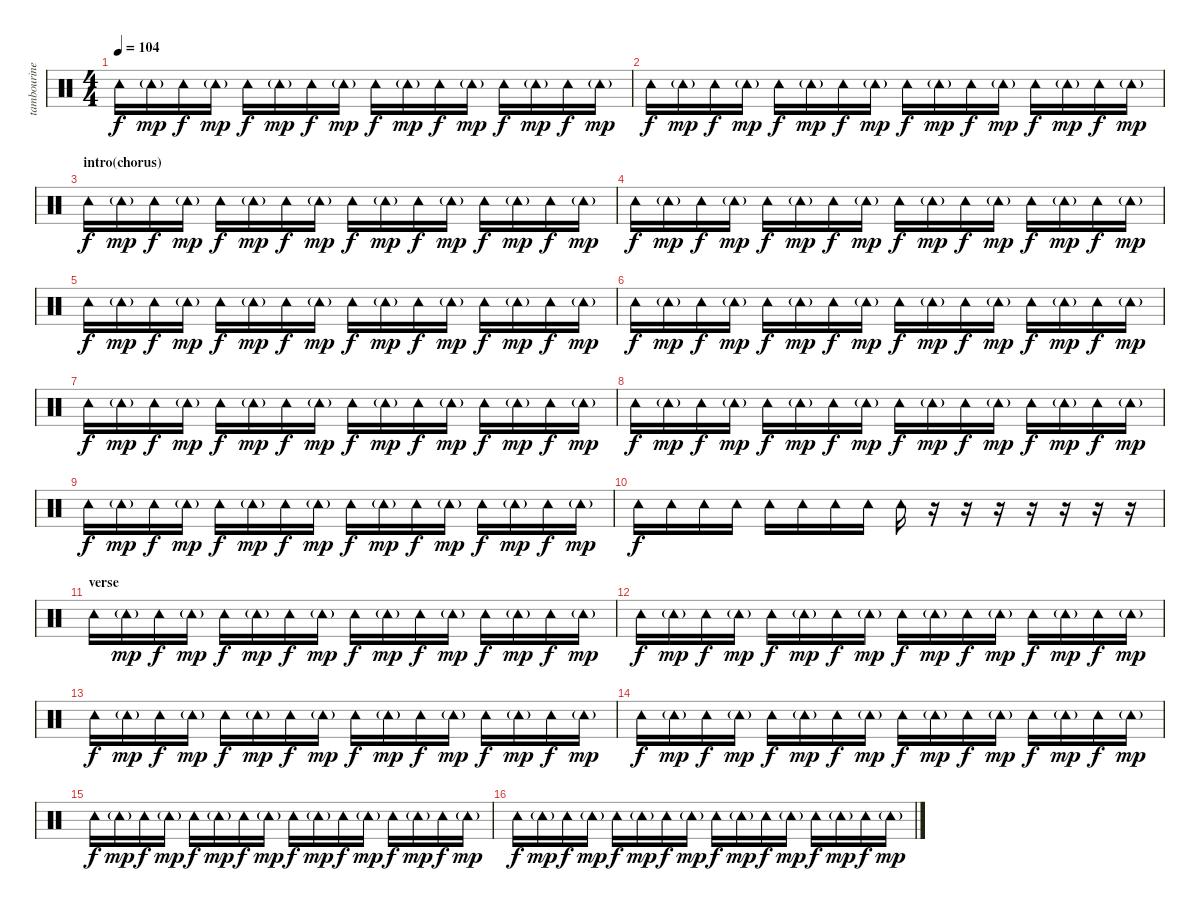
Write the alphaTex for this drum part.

\track ("tambourine" "tambourine") {instrument percussion}
\staff {score}
\articulation defaults
\ts (4 4)
\tempo 104
\clef neutral
\ks c "Tambourine (hit)".16{dy f} "Tambourine (hit)"{g}.16{dy mp} "Tambourine (hit)".16{dy f} "Tambourine (hit)"{g}.16{dy mp} "Tambourine (hit)".16{dy f} "Tambourine (hit)"{g}.16{dy mp} "Tambourine (hit)".16{dy f} "Tambourine (hit)"{g}.16{dy mp} "Tambourine (hit)".16{dy f} "Tambourine (hit)"{g}.16{dy mp} "Tambourine (hit)".16{dy f} "Tambourine (hit)"{g}.16{dy mp} "Tambourine (hit)".16{dy f} "Tambourine (hit)"{g}.16{dy mp} "Tambourine (hit)".16{dy f} "Tambourine (hit)"{g}.16{dy mp}
|
"Tambourine (hit)".16{dy f} "Tambourine (hit)"{g}.16{dy mp} "Tambourine (hit)".16{dy f} "Tambourine (hit)"{g}.16{dy mp} "Tambourine (hit)".16{dy f} "Tambourine (hit)"{g}.16{dy mp} "Tambourine (hit)".16{dy f} "Tambourine (hit)"{g}.16{dy mp} "Tambourine (hit)".16{dy f} "Tambourine (hit)"{g}.16{dy mp} "Tambourine (hit)".16{dy f} "Tambourine (hit)"{g}.16{dy mp} "Tambourine (hit)".16{dy f} "Tambourine (hit)"{g}.16{dy mp} "Tambourine (hit)".16{dy f} "Tambourine (hit)"{g}.16{dy mp} |
\section ("" "intro(chorus)")
"Tambourine (hit)".16{dy f} "Tambourine (hit)"{g}.16{dy mp} "Tambourine (hit)".16{dy f} "Tambourine (hit)"{g}.16{dy mp} "Tambourine (hit)".16{dy f} "Tambourine (hit)"{g}.16{dy mp} "Tambourine (hit)".16{dy f} "Tambourine (hit)"{g}.16{dy mp} "Tambourine (hit)".16{dy f} "Tambourine (hit)"{g}.16{dy mp} "Tambourine (hit)".16{dy f} "Tambourine (hit)"{g}.16{dy mp} "Tambourine (hit)".16{dy f} "Tambourine (hit)"{g}.16{dy mp} "Tambourine (hit)".16{dy f} "Tambourine (hit)"{g}.16{dy mp} |
"Tambourine (hit)".16{dy f} "Tambourine (hit)"{g}.16{dy mp} "Tambourine (hit)".16{dy f} "Tambourine (hit)"{g}.16{dy mp} "Tambourine (hit)".16{dy f} "Tambourine (hit)"{g}.16{dy mp} "Tambourine (hit)".16{dy f} "Tambourine (hit)"{g}.16{dy mp} "Tambourine (hit)".16{dy f} "Tambourine (hit)"{g}.16{dy mp} "Tambourine (hit)".16{dy f} "Tambourine (hit)"{g}.16{dy mp} "Tambourine (hit)".16{dy f} "Tambourine (hit)"{g}.16{dy mp} "Tambourine (hit)".16{dy f} "Tambourine (hit)"{g}.16{dy mp} |
"Tambourine (hit)".16{dy f} "Tambourine (hit)"{g}.16{dy mp} "Tambourine (hit)".16{dy f} "Tambourine (hit)"{g}.16{dy mp} "Tambourine (hit)".16{dy f} "Tambourine (hit)"{g}.16{dy mp} "Tambourine (hit)".16{dy f} "Tambourine (hit)"{g}.16{dy mp} "Tambourine (hit)".16{dy f} "Tambourine (hit)"{g}.16{dy mp} "Tambourine (hit)".16{dy f} "Tambourine (hit)"{g}.16{dy mp} "Tambourine (hit)".16{dy f} "Tambourine (hit)"{g}.16{dy mp} "Tambourine (hit)".16{dy f} "Tambourine (hit)"{g}.16{dy mp} |
"Tambourine (hit)".16{dy f} "Tambourine (hit)"{g}.16{dy mp} "Tambourine (hit)".16{dy f} "Tambourine (hit)"{g}.16{dy mp} "Tambourine (hit)".16{dy f} "Tambourine (hit)"{g}.16{dy mp} "Tambourine (hit)".16{dy f} "Tambourine (hit)"{g}.16{dy mp} "Tambourine (hit)".16{dy f} "Tambourine (hit)"{g}.16{dy mp} "Tambourine (hit)".16{dy f} "Tambourine (hit)"{g}.16{dy mp} "Tambourine (hit)".16{dy f} "Tambourine (hit)"{g}.16{dy mp} "Tambourine (hit)".16{dy f} "Tambourine (hit)"{g}.16{dy mp} |
"Tambourine (hit)".16{dy f} "Tambourine (hit)"{g}.16{dy mp} "Tambourine (hit)".16{dy f} "Tambourine (hit)"{g}.16{dy mp} "Tambourine (hit)".16{dy f} "Tambourine (hit)"{g}.16{dy mp} "Tambourine (hit)".16{dy f} "Tambourine (hit)"{g}.16{dy mp} "Tambourine (hit)".16{dy f} "Tambourine (hit)"{g}.16{dy mp} "Tambourine (hit)".16{dy f} "Tambourine (hit)"{g}.16{dy mp} "Tambourine (hit)".16{dy f} "Tambourine (hit)"{g}.16{dy mp} "Tambourine (hit)".16{dy f} "Tambourine (hit)"{g}.16{dy mp} |
"Tambourine (hit)".16{dy f} "Tambourine (hit)"{g}.16{dy mp} "Tambourine (hit)".16{dy f} "Tambourine (hit)"{g}.16{dy mp} "Tambourine (hit)".16{dy f} "Tambourine (hit)"{g}.16{dy mp} "Tambourine (hit)".16{dy f} "Tambourine (hit)"{g}.16{dy mp} "Tambourine (hit)".16{dy f} "Tambourine (hit)"{g}.16{dy mp} "Tambourine (hit)".16{dy f} "Tambourine (hit)"{g}.16{dy mp} "Tambourine (hit)".16{dy f} "Tambourine (hit)"{g}.16{dy mp} "Tambourine (hit)".16{dy f} "Tambourine (hit)"{g}.16{dy mp} |
"Tambourine (hit)".16{dy f} "Tambourine (hit)"{g}.16{dy mp} "Tambourine (hit)".16{dy f} "Tambourine (hit)"{g}.16{dy mp} "Tambourine (hit)".16{dy f} "Tambourine (hit)"{g}.16{dy mp} "Tambourine (hit)".16{dy f} "Tambourine (hit)"{g}.16{dy mp} "Tambourine (hit)".16{dy f} "Tambourine (hit)"{g}.16{dy mp} "Tambourine (hit)".16{dy f} "Tambourine (hit)"{g}.16{dy mp} "Tambourine (hit)".16{dy f} "Tambourine (hit)"{g}.16{dy mp} "Tambourine (hit)".16{dy f} "Tambourine (hit)"{g}.16{dy mp} |
"Tambourine (hit)".16{dy f} "Tambourine (hit)".16 "Tambourine (hit)".16 "Tambourine (hit)".16 "Tambourine (hit)".16 "Tambourine (hit)".16 "Tambourine (hit)".16 "Tambourine (hit)".16 "Tambourine (hit)".16 r.16 r.16 r.16 r.16 r.16 r.16 r.16 |
\section ("" "verse")
"Tambourine (hit)".16 "Tambourine (hit)"{g}.16{dy mp} "Tambourine (hit)".16{dy f} "Tambourine (hit)"{g}.16{dy mp} "Tambourine (hit)".16{dy f} "Tambourine (hit)"{g}.16{dy mp} "Tambourine (hit)".16{dy f} "Tambourine (hit)"{g}.16{dy mp} "Tambourine (hit)".16{dy f} "Tambourine (hit)"{g}.16{dy mp} "Tambourine (hit)".16{dy f} "Tambourine (hit)"{g}.16{dy mp} "Tambourine (hit)".16{dy f} "Tambourine (hit)"{g}.16{dy mp} "Tambourine (hit)".16{dy f} "Tambourine (hit)"{g}.16{dy mp} |
"Tambourine (hit)".16{dy f} "Tambourine (hit)"{g}.16{dy mp} "Tambourine (hit)".16{dy f} "Tambourine (hit)"{g}.16{dy mp} "Tambourine (hit)".16{dy f} "Tambourine (hit)"{g}.16{dy mp} "Tambourine (hit)".16{dy f} "Tambourine (hit)"{g}.16{dy mp} "Tambourine (hit)".16{dy f} "Tambourine (hit)"{g}.16{dy mp} "Tambourine (hit)".16{dy f} "Tambourine (hit)"{g}.16{dy mp} "Tambourine (hit)".16{dy f} "Tambourine (hit)"{g}.16{dy mp} "Tambourine (hit)".16{dy f} "Tambourine (hit)"{g}.16{dy mp} |
"Tambourine (hit)".16{dy f} "Tambourine (hit)"{g}.16{dy mp} "Tambourine (hit)".16{dy f} "Tambourine (hit)"{g}.16{dy mp} "Tambourine (hit)".16{dy f} "Tambourine (hit)"{g}.16{dy mp} "Tambourine (hit)".16{dy f} "Tambourine (hit)"{g}.16{dy mp} "Tambourine (hit)".16{dy f} "Tambourine (hit)"{g}.16{dy mp} "Tambourine (hit)".16{dy f} "Tambourine (hit)"{g}.16{dy mp} "Tambourine (hit)".16{dy f} "Tambourine (hit)"{g}.16{dy mp} "Tambourine (hit)".16{dy f} "Tambourine (hit)"{g}.16{dy mp} |
"Tambourine (hit)".16{dy f} "Tambourine (hit)"{g}.16{dy mp} "Tambourine (hit)".16{dy f} "Tambourine (hit)"{g}.16{dy mp} "Tambourine (hit)".16{dy f} "Tambourine (hit)"{g}.16{dy mp} "Tambourine (hit)".16{dy f} "Tambourine (hit)"{g}.16{dy mp} "Tambourine (hit)".16{dy f} "Tambourine (hit)"{g}.16{dy mp} "Tambourine (hit)".16{dy f} "Tambourine (hit)"{g}.16{dy mp} "Tambourine (hit)".16{dy f} "Tambourine (hit)"{g}.16{dy mp} "Tambourine (hit)".16{dy f} "Tambourine (hit)"{g}.16{dy mp} |
"Tambourine (hit)".16{dy f} "Tambourine (hit)"{g}.16{dy mp} "Tambourine (hit)".16{dy f} "Tambourine (hit)"{g}.16{dy mp} "Tambourine (hit)".16{dy f} "Tambourine (hit)"{g}.16{dy mp} "Tambourine (hit)".16{dy f} "Tambourine (hit)"{g}.16{dy mp} "Tambourine (hit)".16{dy f} "Tambourine (hit)"{g}.16{dy mp} "Tambourine (hit)".16{dy f} "Tambourine (hit)"{g}.16{dy mp} "Tambourine (hit)".16{dy f} "Tambourine (hit)"{g}.16{dy mp} "Tambourine (hit)".16{dy f} "Tambourine (hit)"{g}.16{dy mp} |
"Tambourine (hit)".16{dy f} "Tambourine (hit)"{g}.16{dy mp} "Tambourine (hit)".16{dy f} "Tambourine (hit)"{g}.16{dy mp} "Tambourine (hit)".16{dy f} "Tambourine (hit)"{g}.16{dy mp} "Tambourine (hit)".16{dy f} "Tambourine (hit)"{g}.16{dy mp} "Tambourine (hit)".16{dy f} "Tambourine (hit)"{g}.16{dy mp} "Tambourine (hit)".16{dy f} "Tambourine (hit)"{g}.16{dy mp} "Tambourine (hit)".16{dy f} "Tambourine (hit)"{g}.16{dy mp} "Tambourine (hit)".16{dy f} "Tambourine (hit)"{g}.16{dy mp}
